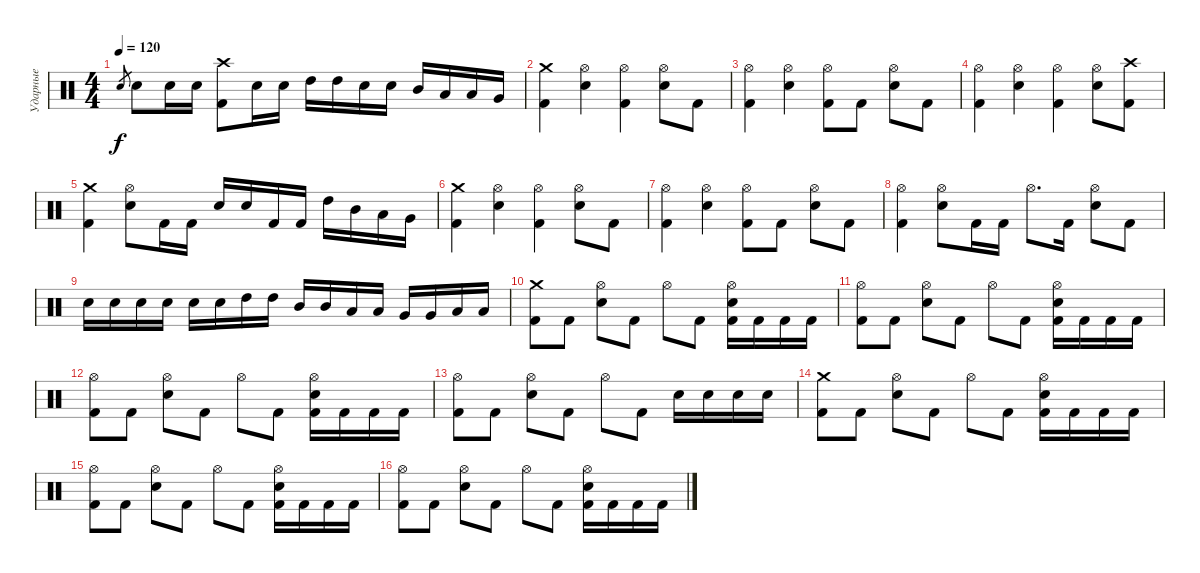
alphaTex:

\track ("Ударные" "Ударные") {instrument percussion}
\staff {score}
\articulation defaults
\ts (4 4)
\tempo 120
\clef neutral
\ks c "Electric Snare (hit)".8{gr dy f} "Electric Snare (hit)".8 "Electric Snare (hit)".16 "Electric Snare (hit)".16
("Crash high (hit)" "Kick (hit) 2").8 "Electric Snare (hit)".16 "Electric Snare (hit)".16 "High Tom (hit)".16 "High Tom (hit)".16 "Electric Snare (hit)".16 "Electric Snare (hit)".16 "Mid Tom (hit)".16 "Low Tom (hit)".16 "Low Tom (hit)".16 "Very Low Tom (hit)".16 |
("Crash medium (hit)" "Kick (hit) 2").4 ("Hi-Hat (open)" "Electric Snare (hit)").4 ("Hi-Hat (open)" "Kick (hit) 2").4 ("Hi-Hat (open)" "Electric Snare (hit)").8 "Kick (hit) 2".8 |
("Hi-Hat (open)" "Kick (hit) 2").4 ("Hi-Hat (open)" "Electric Snare (hit)").4 ("Hi-Hat (open)" "Kick (hit) 2").8 "Kick (hit) 2".8 ("Hi-Hat (open)" "Electric Snare (hit)").8 "Kick (hit) 2".8 |
("Hi-Hat (open)" "Kick (hit) 2").4 ("Hi-Hat (open)" "Electric Snare (hit)").4 ("Hi-Hat (open)" "Kick (hit) 2").4 ("Hi-Hat (open)" "Electric Snare (hit)").8 ("Crash high (hit)" "Kick (hit) 2").8 |
("Crash medium (hit)" "Kick (hit) 2").4 ("Hi-Hat (open)" "Electric Snare (hit)").8 "Kick (hit) 2".16 "Kick (hit) 2".16 "Electric Snare (hit)".16 "Electric Snare (hit)".16 "Kick (hit) 2".16 "Kick (hit) 2".16 "High Tom (hit)".16 "Mid Tom (hit)".16 "Low Tom (hit)".16 "Very Low Tom (hit)".16 |
("Crash medium (hit)" "Kick (hit) 2").4 ("Hi-Hat (open)" "Electric Snare (hit)").4 ("Hi-Hat (open)" "Kick (hit) 2").4 ("Hi-Hat (open)" "Electric Snare (hit)").8 "Kick (hit) 2".8 |
("Hi-Hat (open)" "Kick (hit) 2").4 ("Hi-Hat (open)" "Electric Snare (hit)").4 ("Hi-Hat (open)" "Kick (hit) 2").8 "Kick (hit) 2".8 ("Hi-Hat (open)" "Electric Snare (hit)").8 "Kick (hit) 2".8 |
("Hi-Hat (open)" "Kick (hit) 2").4 ("Hi-Hat (open)" "Electric Snare (hit)").8 "Kick (hit) 2".16 "Kick (hit) 2".16 "Hi-Hat (open)".8{d} "Kick (hit) 2".16 ("Hi-Hat (open)" "Electric Snare (hit)").8 "Kick (hit) 2".8 |
"Electric Snare (hit)".16 "Electric Snare (hit)".16 "Electric Snare (hit)".16 "Electric Snare (hit)".16 "Electric Snare (hit)".16 "Electric Snare (hit)".16 "High Tom (hit)".16 "High Tom (hit)".16 "Mid Tom (hit)".16 "Mid Tom (hit)".16 "Low Tom (hit)".16 "Low Tom (hit)".16 "Very Low Tom (hit)".16 "Very Low Tom (hit)".16 "Low Floor Tom (hit)".16 "Low Floor Tom (hit)".16 |
("Crash medium (hit)" "Kick (hit) 2").8 "Kick (hit) 2".8 ("Hi-Hat (open)" "Electric Snare (hit)").8 "Kick (hit) 2".8 "Hi-Hat (open)".8 "Kick (hit) 2".8 ("Hi-Hat (open)" "Electric Snare (hit)" "Kick (hit) 2").16 "Kick (hit) 2".16 "Kick (hit) 2".16 "Kick (hit) 2".16 |
("Hi-Hat (open)" "Kick (hit) 2").8 "Kick (hit) 2".8 ("Hi-Hat (open)" "Electric Snare (hit)").8 "Kick (hit) 2".8 "Hi-Hat (open)".8 "Kick (hit) 2".8 ("Hi-Hat (open)" "Electric Snare (hit)" "Kick (hit) 2").16 "Kick (hit) 2".16 "Kick (hit) 2".16 "Kick (hit) 2".16 |
("Hi-Hat (open)" "Kick (hit) 2").8 "Kick (hit) 2".8 ("Hi-Hat (open)" "Electric Snare (hit)").8 "Kick (hit) 2".8 "Hi-Hat (open)".8 "Kick (hit) 2".8 ("Hi-Hat (open)" "Electric Snare (hit)" "Kick (hit) 2").16 "Kick (hit) 2".16 "Kick (hit) 2".16 "Kick (hit) 2".16 |
("Hi-Hat (open)" "Kick (hit) 2").8 "Kick (hit) 2".8 ("Hi-Hat (open)" "Electric Snare (hit)").8 "Kick (hit) 2".8 "Hi-Hat (open)".8 "Kick (hit) 2".8 "Electric Snare (hit)".16 "Electric Snare (hit)".16 "Electric Snare (hit)".16 "Electric Snare (hit)".16 |
("Crash medium (hit)" "Kick (hit) 2").8 "Kick (hit) 2".8 ("Hi-Hat (open)" "Electric Snare (hit)").8 "Kick (hit) 2".8 "Hi-Hat (open)".8 "Kick (hit) 2".8 ("Hi-Hat (open)" "Electric Snare (hit)" "Kick (hit) 2").16 "Kick (hit) 2".16 "Kick (hit) 2".16 "Kick (hit) 2".16 |
("Hi-Hat (open)" "Kick (hit) 2").8 "Kick (hit) 2".8 ("Hi-Hat (open)" "Electric Snare (hit)").8 "Kick (hit) 2".8 "Hi-Hat (open)".8 "Kick (hit) 2".8 ("Hi-Hat (open)" "Electric Snare (hit)" "Kick (hit) 2").16 "Kick (hit) 2".16 "Kick (hit) 2".16 "Kick (hit) 2".16 |
("Hi-Hat (open)" "Kick (hit) 2").8 "Kick (hit) 2".8 ("Hi-Hat (open)" "Electric Snare (hit)").8 "Kick (hit) 2".8 "Hi-Hat (open)".8 "Kick (hit) 2".8 ("Hi-Hat (open)" "Electric Snare (hit)" "Kick (hit) 2").16 "Kick (hit) 2".16 "Kick (hit) 2".16 "Kick (hit) 2".16
